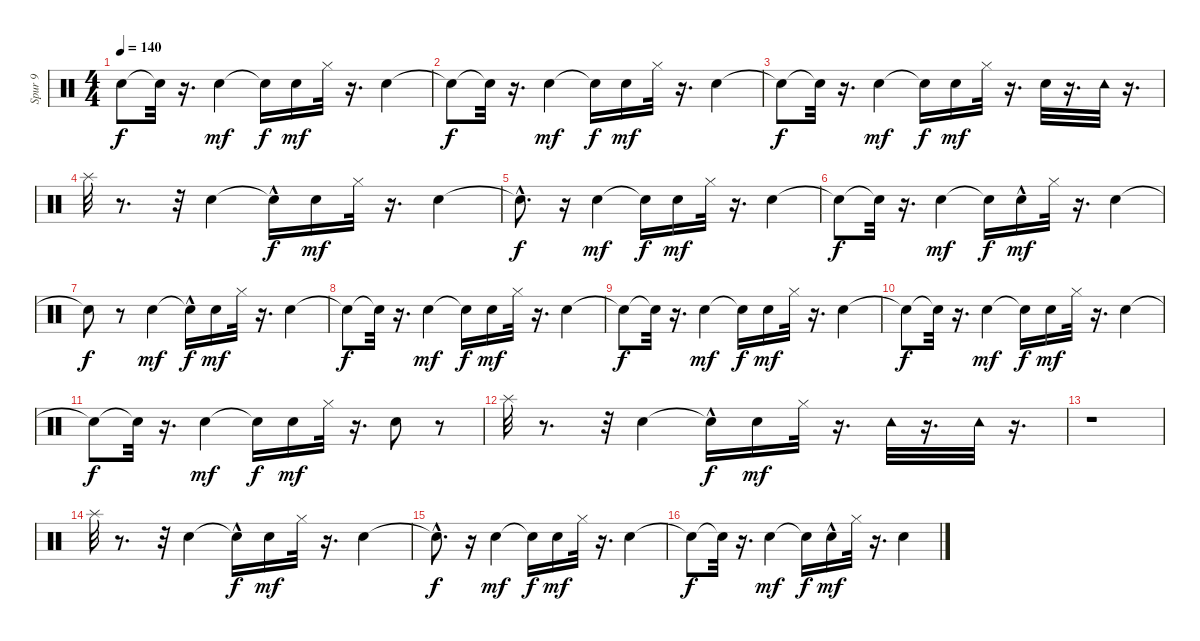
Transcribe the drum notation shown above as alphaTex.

\track ("Spur 9" "Spur 9") {instrument percussion}
\staff {score}
\articulation defaults
\ts (4 4)
\tempo 140
\clef neutral
\ks c "Snare (hit)"{t}.8{dy f} "Snare (hit)"{t}.32
r.16{d} "Electric Snare (hit)".4{dy mf} "Snare (hit)"{t}.16{dy f} "Snare (hit)".16{dy mf} "Hi-Hat (closed)".32 r.16{d} "Electric Snare (hit)".4 |
"Snare (hit)"{t}.8{dy f} "Snare (hit)"{t}.32 r.16{d} "Electric Snare (hit)".4{dy mf} "Snare (hit)"{t}.16{dy f} "Snare (hit)".16{dy mf} "Hi-Hat (closed)".32 r.16{d} "Electric Snare (hit)".4 |
"Snare (hit)"{t}.8{dy f} "Snare (hit)"{t}.32 r.16{d} "Electric Snare (hit)".4{dy mf} "Snare (hit)"{t}.16{dy f} "Snare (hit)".16{dy mf} "Hi-Hat (closed)".32 r.16{d} "Electric Snare (hit)".32 r.16{d} "Tambourine (hit)".32 r.16{d} |
"Splash (hit)".32 r.8{d} r.32 "Electric Snare (hit)".4 "Snare (hit)"{hac t}.16{dy f} "Snare (hit)".16{dy mf} "Hi-Hat (closed)".32 r.16{d} "Electric Snare (hit)".4 |
"Snare (hit)"{hac t}.8{d dy f} r.16 "Electric Snare (hit)".4{dy mf} "Snare (hit)"{t}.16{dy f} "Snare (hit)".16{dy mf} "Hi-Hat (closed)".32 r.16{d} "Electric Snare (hit)".4 |
"Snare (hit)"{t}.8{dy f} "Snare (hit)"{t}.32 r.16{d} "Electric Snare (hit)".4{dy mf} "Snare (hit)"{t}.16{dy f} "Snare (hit)"{hac}.16{dy mf} "Hi-Hat (closed)".32 r.16{d} "Electric Snare (hit)".4 |
"Snare (hit)"{t}.8{dy f} r.8 "Electric Snare (hit)".4{dy mf} "Snare (hit)"{hac t}.16{dy f} "Snare (hit)".16{dy mf} "Hi-Hat (closed)".32 r.16{d} "Electric Snare (hit)".4 |
"Snare (hit)"{t}.8{dy f} "Snare (hit)"{t}.32 r.16{d} "Electric Snare (hit)".4{dy mf} "Snare (hit)"{t}.16{dy f} "Snare (hit)".16{dy mf} "Hi-Hat (closed)".32 r.16{d} "Electric Snare (hit)".4 |
"Snare (hit)"{t}.8{dy f} "Snare (hit)"{t}.32 r.16{d} "Electric Snare (hit)".4{dy mf} "Snare (hit)"{t}.16{dy f} "Snare (hit)".16{dy mf} "Hi-Hat (closed)".32 r.16{d} "Electric Snare (hit)".4 |
"Snare (hit)"{t}.8{dy f} "Snare (hit)"{t}.32 r.16{d} "Electric Snare (hit)".4{dy mf} "Snare (hit)"{t}.16{dy f} "Snare (hit)".16{dy mf} "Hi-Hat (closed)".32 r.16{d} "Electric Snare (hit)".4 |
"Snare (hit)"{t}.8{dy f} "Snare (hit)"{t}.32 r.16{d} "Electric Snare (hit)".4{dy mf} "Snare (hit)"{t}.16{dy f} "Snare (hit)".16{dy mf} "Hi-Hat (closed)".32 r.16{d} "Electric Snare (hit)".8 r.8 |
"Splash (hit)".32 r.8{d} r.32 "Electric Snare (hit)".4 "Snare (hit)"{hac t}.16{dy f} "Snare (hit)".16{dy mf} "Hi-Hat (closed)".32 r.16{d} "Tambourine (hit)".32 r.16{d} "Tambourine (hit)".32 r.16{d} |
r.1 |
"Splash (hit)".32 r.8{d} r.32 "Electric Snare (hit)".4 "Snare (hit)"{hac t}.16{dy f} "Snare (hit)".16{dy mf} "Hi-Hat (closed)".32 r.16{d} "Electric Snare (hit)".4 |
"Snare (hit)"{hac t}.8{d dy f} r.16 "Electric Snare (hit)".4{dy mf} "Snare (hit)"{t}.16{dy f} "Snare (hit)".16{dy mf} "Hi-Hat (closed)".32 r.16{d} "Electric Snare (hit)".4 |
"Snare (hit)"{t}.8{dy f} "Snare (hit)"{t}.32 r.16{d} "Electric Snare (hit)".4{dy mf} "Snare (hit)"{t}.16{dy f} "Snare (hit)"{hac}.16{dy mf} "Hi-Hat (closed)".32 r.16{d} "Electric Snare (hit)".4
